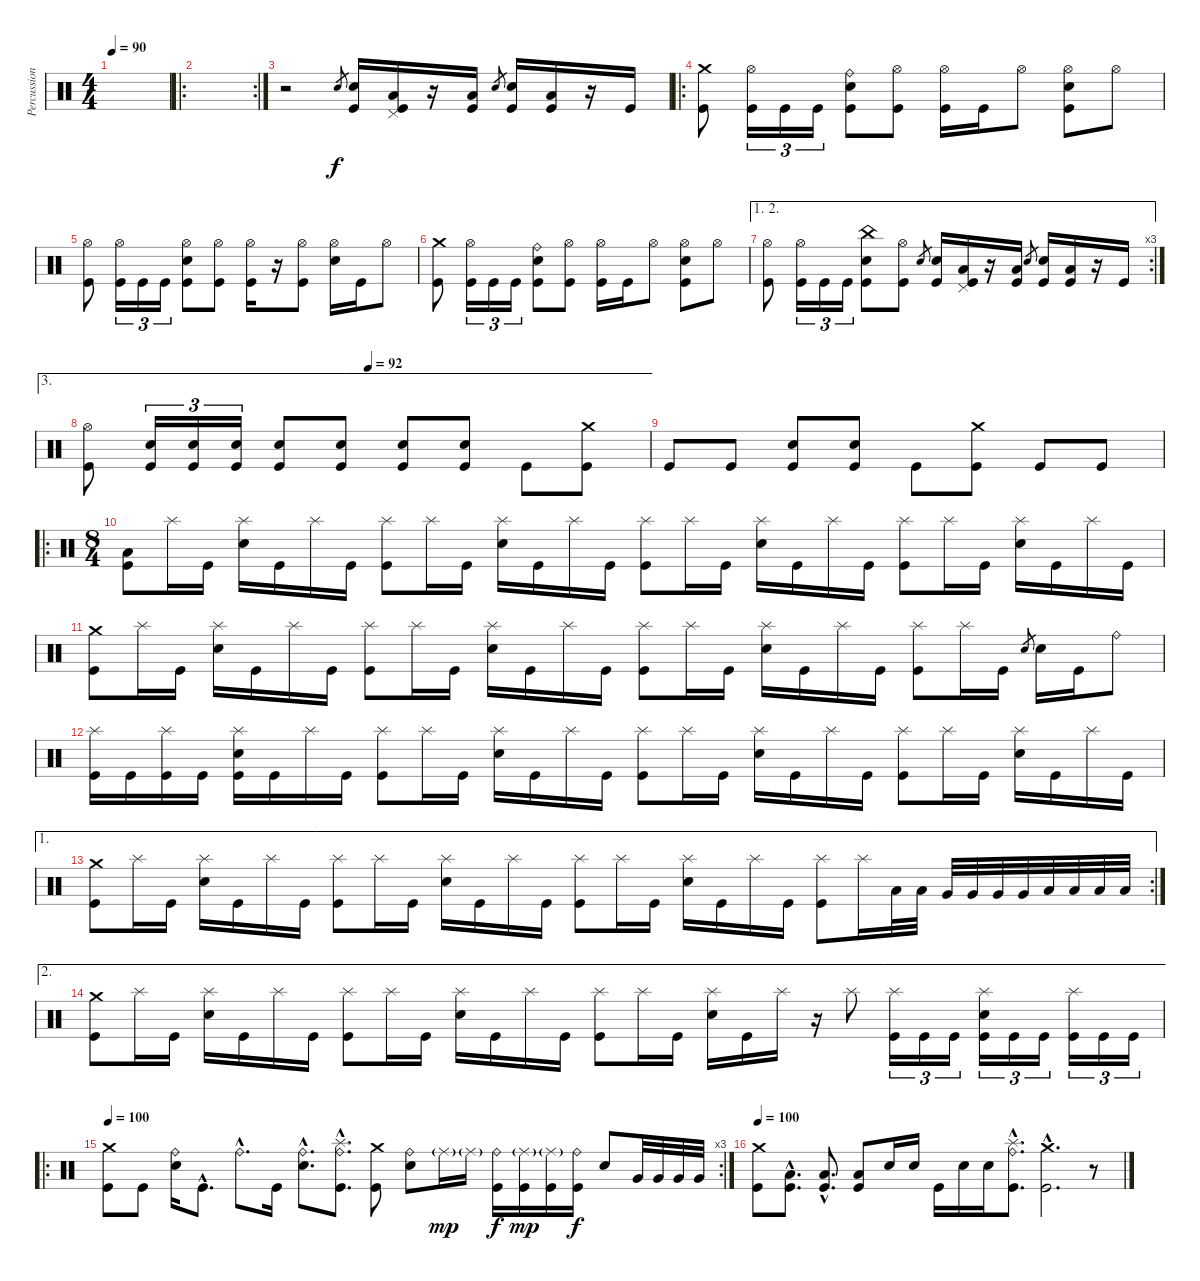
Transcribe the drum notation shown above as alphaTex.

\track ("Percussions" "Percussion") {instrument percussion}
\staff {score}
\articulation defaults
\ts (4 4)
\tempo 90
\clef neutral
\ks c
|
\ro
\rc 2
|
r.2 "Electric Snare (hit)".8{gr} ("Electric Snare (hit)" "Kick (hit)").16 ("Pedal Hi-Hat (hit)" "Low Floor Tom (hit)" "Kick (hit)").16 r.16 ("Low Floor Tom (hit)" "Kick (hit)").16 "Electric Snare (hit)".8{gr} ("Electric Snare (hit)" "Kick (hit)").16 ("Low Floor Tom (hit)" "Kick (hit)").16 r.16 "Kick (hit)".16 |
\ro
("Crash medium (hit)" "Kick (hit)").8 ("Hi-Hat (open)" "Kick (hit)").16{tu (3 2)} "Kick (hit)".16{tu (3 2)} "Kick (hit)".16{tu (3 2)} ("Ride (bell)" "Electric Snare (hit)" "Kick (hit)").8 ("Hi-Hat (open)" "Kick (hit)").8 ("Hi-Hat (open)" "Kick (hit)").16 "Kick (hit)".16 "Hi-Hat (open)".8 ("Hi-Hat (open)" "Electric Snare (hit)" "Kick (hit)").8 "Hi-Hat (open)".8 |
("Hi-Hat (open)" "Kick (hit)").8 ("Hi-Hat (open)" "Kick (hit)").16{tu (3 2)} "Kick (hit)".16{tu (3 2)} "Kick (hit)".16{tu (3 2)} ("Hi-Hat (open)" "Electric Snare (hit)" "Kick (hit)").8 ("Hi-Hat (open)" "Kick (hit)").8 ("Hi-Hat (open)" "Kick (hit)").16 r.16 ("Hi-Hat (open)" "Kick (hit)").8 ("Hi-Hat (open)" "Electric Snare (hit)").16 "Kick (hit)".16 "Hi-Hat (open)".8 |
("Crash medium (hit)" "Kick (hit)").8 ("Hi-Hat (open)" "Kick (hit)").16{tu (3 2)} "Kick (hit)".16{tu (3 2)} "Kick (hit)".16{tu (3 2)} ("Ride (bell)" "Electric Snare (hit)" "Kick (hit)").8 ("Hi-Hat (open)" "Kick (hit)").8 ("Hi-Hat (open)" "Kick (hit)").16 "Kick (hit)".16 "Hi-Hat (open)".8 ("Hi-Hat (open)" "Electric Snare (hit)" "Kick (hit)").8 "Hi-Hat (open)".8 |
\ae (1 2)
\rc 3
("Hi-Hat (open)" "Kick (hit)").8 ("Hi-Hat (open)" "Kick (hit)").16{tu (3 2)} "Kick (hit)".16{tu (3 2)} "Kick (hit)".16{tu (3 2)} ("China (hit)" "Electric Snare (hit)" "Kick (hit)").8 ("Hi-Hat (open)" "Kick (hit)").8 "Electric Snare (hit)".8{gr} ("Electric Snare (hit)" "Kick (hit)").16 ("Pedal Hi-Hat (hit)" "Low Floor Tom (hit)" "Kick (hit)").16 r.16 ("Low Floor Tom (hit)" "Kick (hit)").16 "Electric Snare (hit)".8{gr} ("Electric Snare (hit)" "Kick (hit)").16 ("Low Floor Tom (hit)" "Kick (hit)").16 r.16 "Kick (hit)".16 |
\ae 3
\tempo (92 0.5)
("Hi-Hat (open)" "Kick (hit)").8 ("Electric Snare (hit)" "Kick (hit)").16{tu (3 2)} ("Electric Snare (hit)" "Kick (hit)").16{tu (3 2)} ("Electric Snare (hit)" "Kick (hit)").16{tu (3 2)} ("Electric Snare (hit)" "Kick (hit)").8 ("Electric Snare (hit)" "Kick (hit)").8 ("Electric Snare (hit)" "Kick (hit)").8 ("Electric Snare (hit)" "Kick (hit)").8 "Kick (hit)".8 ("Crash medium (hit)" "Kick (hit)").8 |
"Kick (hit)".8 "Kick (hit)".8 ("Electric Snare (hit)" "Kick (hit)").8 ("Electric Snare (hit)" "Kick (hit)").8 "Kick (hit)".8 ("Crash medium (hit)" "Kick (hit)").8 "Kick (hit)".8 "Kick (hit)".8 |
\ro
\ts (8 4)
("Low Floor Tom (hit)" "Kick (hit)").8 "Splash (hit)".16 "Kick (hit)".16 ("Splash (hit)" "Electric Snare (hit)").16 "Kick (hit)".16 "Splash (hit)".16 "Kick (hit)".16 ("Splash (hit)" "Kick (hit)").8 "Splash (hit)".16 "Kick (hit)".16 ("Splash (hit)" "Electric Snare (hit)").16 "Kick (hit)".16 "Splash (hit)".16 "Kick (hit)".16 ("Splash (hit)" "Kick (hit)").8 "Splash (hit)".16 "Kick (hit)".16 ("Splash (hit)" "Electric Snare (hit)").16 "Kick (hit)".16 "Splash (hit)".16 "Kick (hit)".16 ("Splash (hit)" "Kick (hit)").8 "Splash (hit)".16 "Kick (hit)".16 ("Splash (hit)" "Electric Snare (hit)").16 "Kick (hit)".16 "Splash (hit)".16 "Kick (hit)".16 |
("Crash medium (hit)" "Kick (hit)").8 "Splash (hit)".16 "Kick (hit)".16 ("Splash (hit)" "Electric Snare (hit)").16 "Kick (hit)".16 "Splash (hit)".16 "Kick (hit)".16 ("Splash (hit)" "Kick (hit)").8 "Splash (hit)".16 "Kick (hit)".16 ("Splash (hit)" "Electric Snare (hit)").16 "Kick (hit)".16 "Splash (hit)".16 "Kick (hit)".16 ("Splash (hit)" "Kick (hit)").8 "Splash (hit)".16 "Kick (hit)".16 ("Splash (hit)" "Electric Snare (hit)").16 "Kick (hit)".16 "Splash (hit)".16 "Kick (hit)".16 ("Splash (hit)" "Kick (hit)").8 "Splash (hit)".16 "Kick (hit)".16 "Electric Snare (hit)".8{gr} "Electric Snare (hit)".16 "Kick (hit)".16 "Ride (bell)".8 |
("Splash (hit)" "Kick (hit)").16 "Kick (hit)".16 ("Splash (hit)" "Kick (hit)").16 "Kick (hit)".16 ("Splash (hit)" "Electric Snare (hit)" "Kick (hit)").16 "Kick (hit)".16 "Splash (hit)".16 "Kick (hit)".16 ("Splash (hit)" "Kick (hit)").8 "Splash (hit)".16 "Kick (hit)".16 ("Splash (hit)" "Electric Snare (hit)").16 "Kick (hit)".16 "Splash (hit)".16 "Kick (hit)".16 ("Splash (hit)" "Kick (hit)").8 "Splash (hit)".16 "Kick (hit)".16 ("Splash (hit)" "Electric Snare (hit)").16 "Kick (hit)".16 "Splash (hit)".16 "Kick (hit)".16 ("Splash (hit)" "Kick (hit)").8 "Splash (hit)".16 "Kick (hit)".16 ("Splash (hit)" "Electric Snare (hit)").16 "Kick (hit)".16 "Splash (hit)".16 "Kick (hit)".16 |
\ae 1
\rc 2
("Crash medium (hit)" "Kick (hit)").8 "Splash (hit)".16 "Kick (hit)".16 ("Splash (hit)" "Electric Snare (hit)").16 "Kick (hit)".16 "Splash (hit)".16 "Kick (hit)".16 ("Splash (hit)" "Kick (hit)").8 "Splash (hit)".16 "Kick (hit)".16 ("Splash (hit)" "Electric Snare (hit)").16 "Kick (hit)".16 "Splash (hit)".16 "Kick (hit)".16 ("Splash (hit)" "Kick (hit)").8 "Splash (hit)".16 "Kick (hit)".16 ("Splash (hit)" "Electric Snare (hit)").16 "Kick (hit)".16 "Splash (hit)".16 "Kick (hit)".16 ("Splash (hit)" "Kick (hit)").8 "Splash (hit)".16 "Low Tom (hit)".32 "Low Tom (hit)".32 "Very Low Tom (hit)".32 "Very Low Tom (hit)".32 "Very Low Tom (hit)".32 "Very Low Tom (hit)".32 "Low Floor Tom (hit)".32 "Low Floor Tom (hit)".32 "Low Floor Tom (hit)".32 "Low Floor Tom (hit)".32 |
\ae 2
("Crash medium (hit)" "Kick (hit)").8 "Splash (hit)".16 "Kick (hit)".16 ("Splash (hit)" "Electric Snare (hit)").16 "Kick (hit)".16 "Splash (hit)".16 "Kick (hit)".16 ("Splash (hit)" "Kick (hit)").8 "Splash (hit)".16 "Kick (hit)".16 ("Splash (hit)" "Electric Snare (hit)").16 "Kick (hit)".16 "Splash (hit)".16 "Kick (hit)".16 ("Splash (hit)" "Kick (hit)").8 "Splash (hit)".16 "Kick (hit)".16 ("Splash (hit)" "Electric Snare (hit)").16 "Kick (hit)".16 "Splash (hit)".16 r.16 "Splash (hit)".8 ("Splash (hit)" "Kick (hit)").16{tu (3 2)} "Kick (hit)".16{tu (3 2)} "Kick (hit)".16{tu (3 2)} ("Splash (hit)" "Electric Snare (hit)" "Kick (hit)").16{tu (3 2)} "Kick (hit)".16{tu (3 2)} "Kick (hit)".16{tu (3 2)} ("Splash (hit)" "Kick (hit)").16{tu (3 2)} "Kick (hit)".16{tu (3 2)} "Kick (hit)".16{tu (3 2)} |
\ro
\rc 3
\tempo 100
("Crash medium (hit)" "Kick (hit)").8 "Kick (hit)".8 ("Ride (bell)" "Electric Snare (hit)").16 "Kick (hit)"{hac}.8{d} "Ride (bell)"{hac}.8{d} "Kick (hit)".16 ("Ride (bell)"{hac} "Electric Snare (hit)"{hac}).8{d} ("Splash (hit)"{hac} "Ride (bell)"{hac} "Kick (hit)"{hac}).8{d} ("Crash medium (hit)" "Kick (hit)").8 ("Ride (bell)" "Electric Snare (hit)").8 "Ride (middle)"{g}.16{dy mp} "Ride (middle)"{g}.16 ("Ride (bell)" "Kick (hit)").16{dy f} ("Ride (middle)"{g} "Kick (hit)").16{dy mp} ("Ride (middle)"{g} "Kick (hit)").16 ("Ride (bell)" "Kick (hit)").16{dy f} "Electric Snare (hit)".8 "Very Low Tom (hit)".32 "Very Low Tom (hit)".32 "Very Low Tom (hit)".32 "Very Low Tom (hit)".32 |
\tempo 100
("Crash medium (hit)" "Kick (hit)").8 ("Low Floor Tom (hit)"{hac} "Kick (hit)"{hac}).8{d} ("Low Floor Tom (hit)"{hac} "Kick (hit)"{hac}).8{d} ("Low Floor Tom (hit)" "Kick (hit)").8 "Electric Snare (hit)".16 "Electric Snare (hit)".16 "Kick (hit)".16 "Electric Snare (hit)".16 "Electric Snare (hit)".16 ("Splash (hit)"{hac} "Ride (bell)"{hac} "Kick (hit)"{hac}).8{d} ("Crash medium (hit)"{hac} "Kick (hit)"{hac}).2{d} r.8
